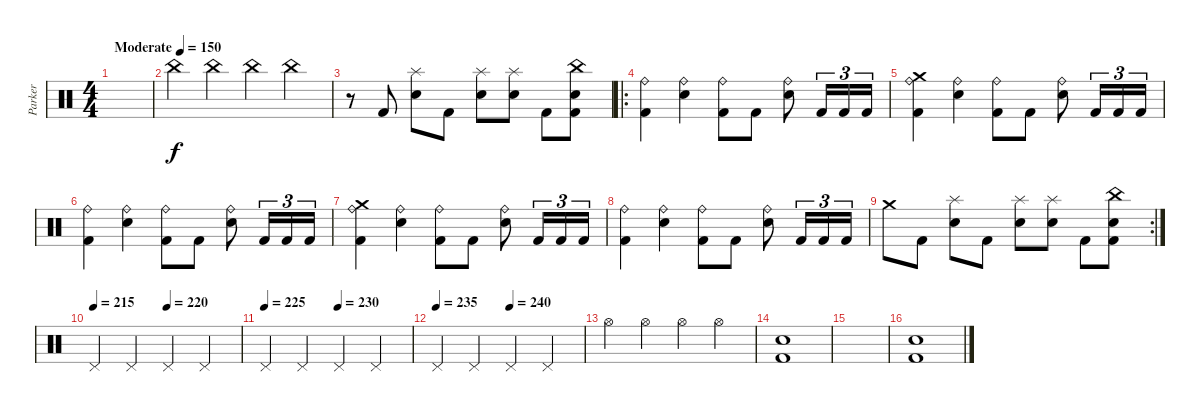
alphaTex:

\track ("Parker" "Parker") {instrument percussion}
\staff {score}
\articulation defaults
\ts (4 4)
\tempo (150 "Moderate")
\clef neutral
\ks c
|
"China (hit)".4 "China (hit)".4 "China (hit)".4 "China (hit)".4 |
r.8 "Kick (hit) 2".8 ("Splash (hit)" "Electric Snare (hit)").8 "Kick (hit) 2".8 ("Splash (hit)" "Electric Snare (hit)").8 ("Splash (hit)" "Electric Snare (hit)").8 "Kick (hit) 2".8 ("China (hit)" "Electric Snare (hit)" "Kick (hit) 2").8 |
\ro
("Ride (bell)" "Kick (hit) 2").4 ("Ride (bell)" "Electric Snare (hit)").4 ("Ride (bell)" "Kick (hit) 2").8 "Kick (hit) 2".8 ("Ride (bell)" "Electric Snare (hit)").8 "Kick (hit) 2".16{tu (3 2)} "Kick (hit) 2".16{tu (3 2)} "Kick (hit) 2".16{tu (3 2)} |
("Crash medium (hit)" "Ride (bell)" "Kick (hit) 2").4 ("Ride (bell)" "Electric Snare (hit)").4 ("Ride (bell)" "Kick (hit) 2").8 "Kick (hit) 2".8 ("Ride (bell)" "Electric Snare (hit)").8 "Kick (hit) 2".16{tu (3 2)} "Kick (hit) 2".16{tu (3 2)} "Kick (hit) 2".16{tu (3 2)} |
("Ride (bell)" "Kick (hit) 2").4 ("Ride (bell)" "Electric Snare (hit)").4 ("Ride (bell)" "Kick (hit) 2").8 "Kick (hit) 2".8 ("Ride (bell)" "Electric Snare (hit)").8 "Kick (hit) 2".16{tu (3 2)} "Kick (hit) 2".16{tu (3 2)} "Kick (hit) 2".16{tu (3 2)} |
("Crash medium (hit)" "Ride (bell)" "Kick (hit) 2").4 ("Ride (bell)" "Electric Snare (hit)").4 ("Ride (bell)" "Kick (hit) 2").8 "Kick (hit) 2".8 ("Ride (bell)" "Electric Snare (hit)").8 "Kick (hit) 2".16{tu (3 2)} "Kick (hit) 2".16{tu (3 2)} "Kick (hit) 2".16{tu (3 2)} |
("Ride (bell)" "Kick (hit) 2").4 ("Ride (bell)" "Electric Snare (hit)").4 ("Ride (bell)" "Kick (hit) 2").8 "Kick (hit) 2".8 ("Ride (bell)" "Electric Snare (hit)").8 "Kick (hit) 2".16{tu (3 2)} "Kick (hit) 2".16{tu (3 2)} "Kick (hit) 2".16{tu (3 2)} |
\rc 2 "Crash medium (hit)".8 "Kick (hit) 2".8
("Splash (hit)" "Electric Snare (hit)").8 "Kick (hit) 2".8 ("Splash (hit)" "Electric Snare (hit)").8 ("Splash (hit)" "Electric Snare (hit)").8 "Kick (hit) 2".8 ("China (hit)" "Electric Snare (hit)" "Kick (hit) 2").8 |
\tempo 215
\tempo (220 0.5)
"Pedal Hi-Hat (hit)".4 "Pedal Hi-Hat (hit)".4 "Pedal Hi-Hat (hit)".4 "Pedal Hi-Hat (hit)".4 |
\tempo 225
\tempo (230 0.5)
"Pedal Hi-Hat (hit)".4 "Pedal Hi-Hat (hit)".4 "Pedal Hi-Hat (hit)".4 "Pedal Hi-Hat (hit)".4 |
\tempo 235
\tempo (240 0.5)
"Pedal Hi-Hat (hit)".4 "Pedal Hi-Hat (hit)".4 "Pedal Hi-Hat (hit)".4 "Pedal Hi-Hat (hit)".4 |
"Hi-Hat (open)".4 "Hi-Hat (open)".4 "Hi-Hat (open)".4 "Hi-Hat (open)".4 |
("Electric Snare (hit)" "Kick (hit) 2").1 |
|
("Electric Snare (hit)" "Kick (hit) 2").1
